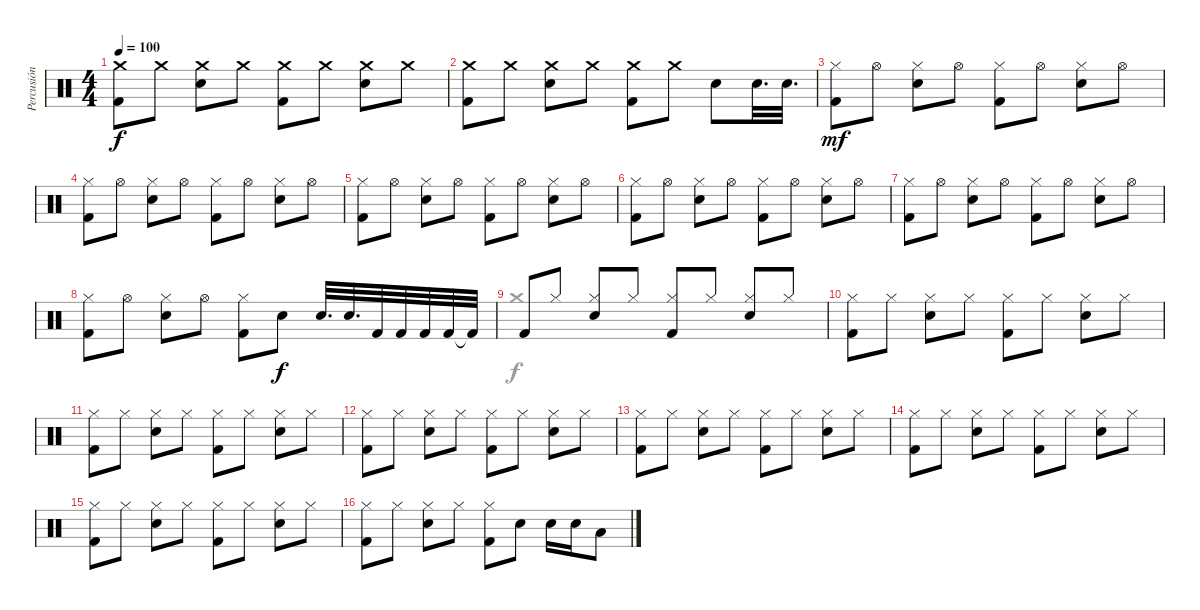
\track ("Percusión" "Percusión") {instrument percussion}
\staff {score}
\articulation defaults
\voice
\ts (4 4)
\tempo 100
\clef neutral
\ks c
("Crash medium (hit)" "Kick (hit) 2").8{dy f} "Crash medium (hit)".8 ("Crash medium (hit)" "Electric Snare (hit)").8 "Crash medium (hit)".8 ("Crash medium (hit)" "Kick (hit) 2").8 "Crash medium (hit)".8 ("Crash medium (hit)" "Electric Snare (hit)").8 "Crash medium (hit)".8 |
("Crash medium (hit)" "Kick (hit) 2").8 "Crash medium (hit)".8 ("Crash medium (hit)" "Electric Snare (hit)").8 "Crash medium (hit)".8 ("Crash medium (hit)" "Kick (hit) 2").8 "Crash medium (hit)".8 "Electric Snare (hit)".8 "Electric Snare (hit)".32{d} "Electric Snare (hit)".32{d} |
("Hi-Hat (closed)" "Kick (hit) 2").8{dy mf} "Hi-Hat (open)".8 ("Hi-Hat (closed)" "Electric Snare (hit)").8 "Hi-Hat (open)".8 ("Hi-Hat (closed)" "Kick (hit) 2").8 "Hi-Hat (open)".8 ("Hi-Hat (closed)" "Electric Snare (hit)").8 "Hi-Hat (open)".8 |
("Hi-Hat (closed)" "Kick (hit) 2").8 "Hi-Hat (open)".8 ("Hi-Hat (closed)" "Electric Snare (hit)").8 "Hi-Hat (open)".8 ("Hi-Hat (closed)" "Kick (hit) 2").8 "Hi-Hat (open)".8 ("Hi-Hat (closed)" "Electric Snare (hit)").8 "Hi-Hat (open)".8 |
("Hi-Hat (closed)" "Kick (hit) 2").8 "Hi-Hat (open)".8 ("Hi-Hat (closed)" "Electric Snare (hit)").8 "Hi-Hat (open)".8 ("Hi-Hat (closed)" "Kick (hit) 2").8 "Hi-Hat (open)".8 ("Hi-Hat (closed)" "Electric Snare (hit)").8 "Hi-Hat (open)".8 |
("Hi-Hat (closed)" "Kick (hit) 2").8 "Hi-Hat (open)".8 ("Hi-Hat (closed)" "Electric Snare (hit)").8 "Hi-Hat (open)".8 ("Hi-Hat (closed)" "Kick (hit) 2").8 "Hi-Hat (open)".8 ("Hi-Hat (closed)" "Electric Snare (hit)").8 "Hi-Hat (open)".8 |
("Hi-Hat (closed)" "Kick (hit) 2").8 "Hi-Hat (open)".8 ("Hi-Hat (closed)" "Electric Snare (hit)").8 "Hi-Hat (open)".8 ("Hi-Hat (closed)" "Kick (hit) 2").8 "Hi-Hat (open)".8 ("Hi-Hat (closed)" "Electric Snare (hit)").8 "Hi-Hat (open)".8 |
("Hi-Hat (closed)" "Kick (hit) 2").8 "Hi-Hat (open)".8 ("Hi-Hat (closed)" "Electric Snare (hit)").8 "Hi-Hat (open)".8 ("Hi-Hat (closed)" "Kick (hit) 2").8 "Electric Snare (hit)".8{dy f} "Electric Snare (hit)".32{d} "Electric Snare (hit)".32{d} "Kick (hit) 2".32 "Kick (hit) 2".32 "Kick (hit) 2".32 "Kick (hit) 2".32 "Kick (hit) 2"{t}.32 |
"Kick (hit) 2".8 "Hi-Hat (closed)".8 ("Hi-Hat (closed)" "Electric Snare (hit)").8 "Hi-Hat (closed)".8 ("Hi-Hat (closed)" "Kick (hit) 2").8 "Hi-Hat (closed)".8 ("Hi-Hat (closed)" "Electric Snare (hit)").8 "Hi-Hat (closed)".8 |
("Hi-Hat (closed)" "Kick (hit) 2").8 "Hi-Hat (closed)".8 ("Hi-Hat (closed)" "Electric Snare (hit)").8 "Hi-Hat (closed)".8 ("Hi-Hat (closed)" "Kick (hit) 2").8 "Hi-Hat (closed)".8 ("Hi-Hat (closed)" "Electric Snare (hit)").8 "Hi-Hat (closed)".8 |
("Hi-Hat (closed)" "Kick (hit) 2").8 "Hi-Hat (closed)".8 ("Hi-Hat (closed)" "Electric Snare (hit)").8 "Hi-Hat (closed)".8 ("Hi-Hat (closed)" "Kick (hit) 2").8 "Hi-Hat (closed)".8 ("Hi-Hat (closed)" "Electric Snare (hit)").8 "Hi-Hat (closed)".8 |
("Hi-Hat (closed)" "Kick (hit) 2").8 "Hi-Hat (closed)".8 ("Hi-Hat (closed)" "Electric Snare (hit)").8 "Hi-Hat (closed)".8 ("Hi-Hat (closed)" "Kick (hit) 2").8 "Hi-Hat (closed)".8 ("Hi-Hat (closed)" "Electric Snare (hit)").8 "Hi-Hat (closed)".8 |
("Hi-Hat (closed)" "Kick (hit) 2").8 "Hi-Hat (closed)".8 ("Hi-Hat (closed)" "Electric Snare (hit)").8 "Hi-Hat (closed)".8 ("Hi-Hat (closed)" "Kick (hit) 2").8 "Hi-Hat (closed)".8 ("Hi-Hat (closed)" "Electric Snare (hit)").8 "Hi-Hat (closed)".8 |
("Hi-Hat (closed)" "Kick (hit) 2").8 "Hi-Hat (closed)".8 ("Hi-Hat (closed)" "Electric Snare (hit)").8 "Hi-Hat (closed)".8 ("Hi-Hat (closed)" "Kick (hit) 2").8 "Hi-Hat (closed)".8 ("Hi-Hat (closed)" "Electric Snare (hit)").8 "Hi-Hat (closed)".8 |
("Hi-Hat (closed)" "Kick (hit) 2").8 "Hi-Hat (closed)".8 ("Hi-Hat (closed)" "Electric Snare (hit)").8 "Hi-Hat (closed)".8 ("Hi-Hat (closed)" "Kick (hit) 2").8 "Hi-Hat (closed)".8 ("Hi-Hat (closed)" "Electric Snare (hit)").8 "Hi-Hat (closed)".8 |
("Hi-Hat (closed)" "Kick (hit) 2").8 "Hi-Hat (closed)".8 ("Hi-Hat (closed)" "Electric Snare (hit)").8 "Hi-Hat (closed)".8 ("Hi-Hat (closed)" "Kick (hit) 2").8 "Electric Snare (hit)".8 "Electric Snare (hit)".16 "Electric Snare (hit)".16 "Low Tom (hit)".8
\voice
\clef neutral
\ottava regular
\simile none
\ks c
|
|
|
|
|
|
|
|
"Crash medium (hit)".1 |
|
|
|
|
|
|
